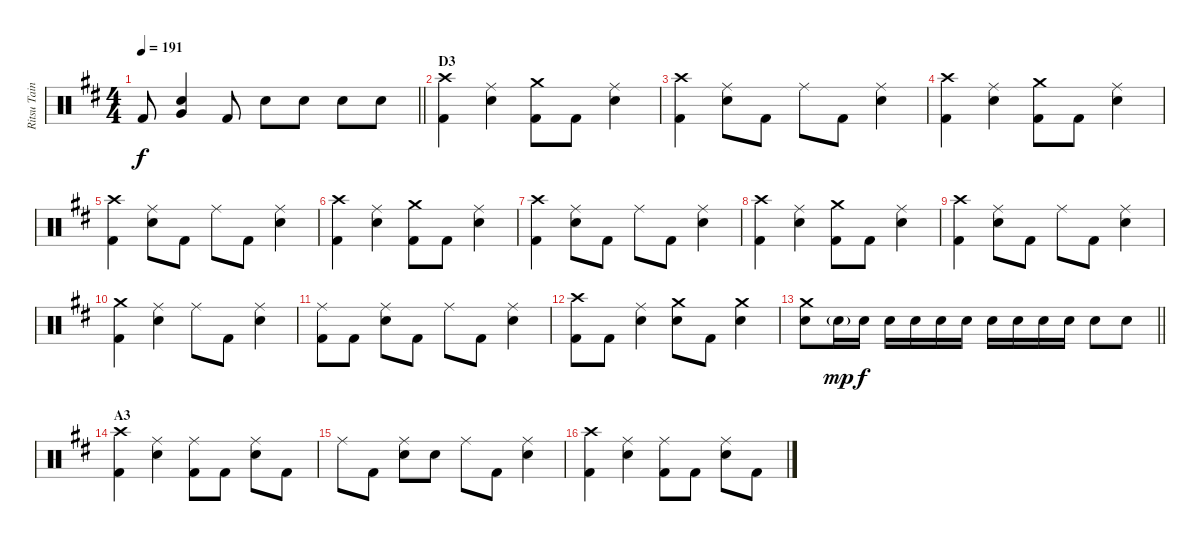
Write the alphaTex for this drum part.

\track ("Ritsu Tainaka" "Ritsu Tain") {instrument percussion}
\staff {score}
\articulation defaults
\ts (4 4)
\tempo 191
\clef neutral
\barLineRight lightlight
\ks d "Kick (hit) 2".8{dy f}
("Electric Snare (hit)" "Very Low Tom (hit)").4 "Kick (hit) 2".8 "Electric Snare (hit)".8 "Electric Snare (hit)".8 "Electric Snare (hit)".8 "Electric Snare (hit)".8 |
\section ("" "D3")
("Crash high (hit)" "Kick (hit) 2").4 ("Ride (middle)" "Electric Snare (hit)").4 ("Crash medium (hit)" "Kick (hit) 2").8 "Kick (hit) 2".8 ("Ride (middle)" "Electric Snare (hit)").4 |
("Crash high (hit)" "Kick (hit) 2").4 ("Ride (middle)" "Electric Snare (hit)").8 "Kick (hit) 2".8 "Ride (middle)".8 "Kick (hit) 2".8 ("Ride (middle)" "Electric Snare (hit)").4 |
("Crash high (hit)" "Kick (hit) 2").4 ("Ride (middle)" "Electric Snare (hit)").4 ("Crash medium (hit)" "Kick (hit) 2").8 "Kick (hit) 2".8 ("Ride (middle)" "Electric Snare (hit)").4 |
("Crash high (hit)" "Kick (hit) 2").4 ("Ride (middle)" "Electric Snare (hit)").8 "Kick (hit) 2".8 "Ride (middle)".8 "Kick (hit) 2".8 ("Ride (middle)" "Electric Snare (hit)").4 |
("Crash high (hit)" "Kick (hit) 2").4 ("Ride (middle)" "Electric Snare (hit)").4 ("Crash medium (hit)" "Kick (hit) 2").8 "Kick (hit) 2".8 ("Ride (middle)" "Electric Snare (hit)").4 |
("Crash high (hit)" "Kick (hit) 2").4 ("Ride (middle)" "Electric Snare (hit)").8 "Kick (hit) 2".8 "Ride (middle)".8 "Kick (hit) 2".8 ("Ride (middle)" "Electric Snare (hit)").4 |
("Crash high (hit)" "Kick (hit) 2").4 ("Ride (middle)" "Electric Snare (hit)").4 ("Crash medium (hit)" "Kick (hit) 2").8 "Kick (hit) 2".8 ("Ride (middle)" "Electric Snare (hit)").4 |
("Crash high (hit)" "Kick (hit) 2").4 ("Ride (middle)" "Electric Snare (hit)").8 "Kick (hit) 2".8 "Ride (middle)".8 "Kick (hit) 2".8 ("Ride (middle)" "Electric Snare (hit)").4 |
("Crash medium (hit)" "Kick (hit) 2").4 ("Ride (middle)" "Electric Snare (hit)").4 "Ride (middle)".8 "Kick (hit) 2".8 ("Ride (middle)" "Electric Snare (hit)").4 |
("Ride (middle)" "Kick (hit) 2").8 "Kick (hit) 2".8 ("Ride (middle)" "Electric Snare (hit)").8 "Kick (hit) 2".8 "Ride (middle)".8 "Kick (hit) 2".8 ("Ride (middle)" "Electric Snare (hit)").4 |
("Crash high (hit)" "Kick (hit) 2").8 "Kick (hit) 2".8 ("Ride (middle)" "Electric Snare (hit)").4 ("Crash medium (hit)" "Electric Snare (hit)").8 "Kick (hit) 2".8 ("Crash medium (hit)" "Electric Snare (hit)").4 |
\barLineRight lightlight
("Crash medium (hit)" "Electric Snare (hit)").8 "Electric Snare (hit)"{g}.16{dy mp} "Electric Snare (hit)".16{dy f} "Electric Snare (hit)".16 "Electric Snare (hit)".16 "Electric Snare (hit)".16 "Electric Snare (hit)".16 "Electric Snare (hit)".16 "Electric Snare (hit)".16 "Electric Snare (hit)".16 "Electric Snare (hit)".16 "Electric Snare (hit)".8 "Electric Snare (hit)".8 |
\section ("" "A3")
("Crash high (hit)" "Kick (hit) 2").4 ("Ride (middle)" "Electric Snare (hit)").4 ("Ride (middle)" "Kick (hit) 2").8 "Kick (hit) 2".8 ("Ride (middle)" "Electric Snare (hit)").8 "Kick (hit) 2".8 |
"Ride (middle)".8 "Kick (hit) 2".8 ("Ride (middle)" "Electric Snare (hit)").8 "Electric Snare (hit)".8 "Ride (middle)".8 "Kick (hit) 2".8 ("Ride (middle)" "Electric Snare (hit)").4 |
("Crash high (hit)" "Kick (hit) 2").4 ("Ride (middle)" "Electric Snare (hit)").4 ("Ride (middle)" "Kick (hit) 2").8 "Kick (hit) 2".8 ("Ride (middle)" "Electric Snare (hit)").8 "Kick (hit) 2".8
